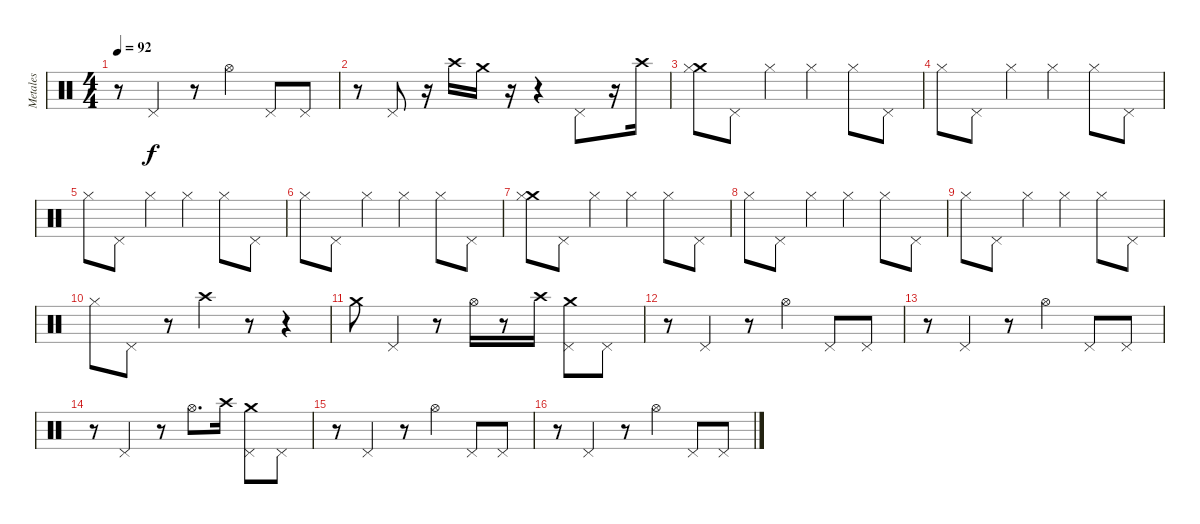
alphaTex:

\track ("Metales" "Metales") {instrument percussion}
\staff {score}
\articulation defaults
\ts (4 4)
\tempo 92
\clef neutral
\ks c
r.8{dy f} "Pedal Hi-Hat (hit)".4 r.8 "Hi-Hat (open)".4 "Pedal Hi-Hat (hit)".8 "Pedal Hi-Hat (hit)".8 |
r.8 "Pedal Hi-Hat (hit)".8 r.16 "Crash high (hit)".16 "Crash medium (hit)".16 r.16 r.4 "Pedal Hi-Hat (hit)".8 r.16 "Crash high (hit)".16 |
("Crash medium (hit)" "Hi-Hat (closed)").8 "Pedal Hi-Hat (hit)".8 "Hi-Hat (closed)".4 "Hi-Hat (closed)".4 "Hi-Hat (closed)".8 "Pedal Hi-Hat (hit)".8 |
"Hi-Hat (closed)".8 "Pedal Hi-Hat (hit)".8 "Hi-Hat (closed)".4 "Hi-Hat (closed)".4 "Hi-Hat (closed)".8 "Pedal Hi-Hat (hit)".8 |
"Hi-Hat (closed)".8 "Pedal Hi-Hat (hit)".8 "Hi-Hat (closed)".4 "Hi-Hat (closed)".4 "Hi-Hat (closed)".8 "Pedal Hi-Hat (hit)".8 |
"Hi-Hat (closed)".8 "Pedal Hi-Hat (hit)".8 "Hi-Hat (closed)".4 "Hi-Hat (closed)".4 "Hi-Hat (closed)".8 "Pedal Hi-Hat (hit)".8 |
("Crash medium (hit)" "Hi-Hat (closed)").8 "Pedal Hi-Hat (hit)".8 "Hi-Hat (closed)".4 "Hi-Hat (closed)".4 "Hi-Hat (closed)".8 "Pedal Hi-Hat (hit)".8 |
"Hi-Hat (closed)".8 "Pedal Hi-Hat (hit)".8 "Hi-Hat (closed)".4 "Hi-Hat (closed)".4 "Hi-Hat (closed)".8 "Pedal Hi-Hat (hit)".8 |
"Hi-Hat (closed)".8 "Pedal Hi-Hat (hit)".8 "Hi-Hat (closed)".4 "Hi-Hat (closed)".4 "Hi-Hat (closed)".8 "Pedal Hi-Hat (hit)".8 |
"Hi-Hat (closed)".8 "Pedal Hi-Hat (hit)".8 r.8 "Crash high (hit)".4 r.8 r.4 |
"Crash medium (hit)".8 "Pedal Hi-Hat (hit)".4 r.8 "Hi-Hat (open)".16 r.8 "Crash high (hit)".16 ("Crash medium (hit)" "Pedal Hi-Hat (hit)").8 "Pedal Hi-Hat (hit)".8 |
r.8 "Pedal Hi-Hat (hit)".4 r.8 "Hi-Hat (open)".4 "Pedal Hi-Hat (hit)".8 "Pedal Hi-Hat (hit)".8 |
r.8 "Pedal Hi-Hat (hit)".4 r.8 "Hi-Hat (open)".4 "Pedal Hi-Hat (hit)".8 "Pedal Hi-Hat (hit)".8 |
r.8 "Pedal Hi-Hat (hit)".4 r.8 "Hi-Hat (open)".8{d} "Crash high (hit)".16 ("Crash medium (hit)" "Pedal Hi-Hat (hit)").8 "Pedal Hi-Hat (hit)".8 |
r.8 "Pedal Hi-Hat (hit)".4 r.8 "Hi-Hat (open)".4 "Pedal Hi-Hat (hit)".8 "Pedal Hi-Hat (hit)".8 |
r.8 "Pedal Hi-Hat (hit)".4 r.8 "Hi-Hat (open)".4 "Pedal Hi-Hat (hit)".8 "Pedal Hi-Hat (hit)".8
